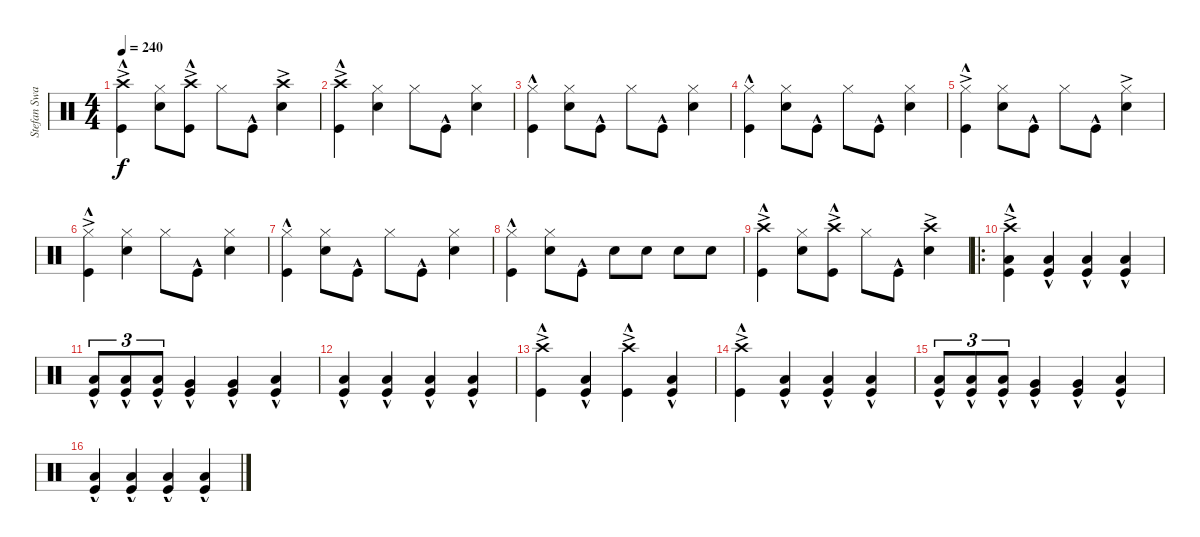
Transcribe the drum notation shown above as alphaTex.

\track ("Stefan Swarztmann" "Stefan Swa") {instrument percussion}
\staff {score}
\articulation defaults
\ts (4 4)
\tempo 240
\clef neutral
\ks c
("Crash high (hit)"{ac} "Kick (hit)"{hac}).4{dy f} ("Hi-Hat (closed)" "Snare (hit) 2").8 ("Crash high (hit)"{ac} "Kick (hit)"{hac}).8 "Hi-Hat (closed)".8 "Kick (hit)"{hac}.8 ("Crash high (hit)"{ac} "Snare (hit) 2").4 |
("Crash high (hit)"{ac} "Kick (hit)"{hac}).4 ("Hi-Hat (closed)" "Snare (hit) 2").4 "Hi-Hat (closed)".8 "Kick (hit)"{hac}.8 ("Hi-Hat (closed)" "Snare (hit) 2").4 |
("Hi-Hat (closed)" "Kick (hit)"{hac}).4 ("Hi-Hat (closed)" "Snare (hit) 2").8 "Kick (hit)"{hac}.8 "Hi-Hat (closed)".8 "Kick (hit)"{hac}.8 ("Hi-Hat (closed)" "Snare (hit) 2").4 |
("Hi-Hat (closed)" "Kick (hit)"{hac}).4 ("Hi-Hat (closed)" "Snare (hit) 2").8 "Kick (hit)"{hac}.8 "Hi-Hat (closed)".8 "Kick (hit)"{hac}.8 ("Hi-Hat (closed)" "Snare (hit) 2").4 |
("Hi-Hat (closed)"{ac} "Kick (hit)"{hac}).4 ("Hi-Hat (closed)" "Snare (hit) 2").8 "Kick (hit)"{hac}.8 "Hi-Hat (closed)".8 "Kick (hit)"{hac}.8 ("Hi-Hat (closed)"{ac} "Snare (hit) 2").4 |
("Hi-Hat (closed)"{ac} "Kick (hit)"{hac}).4 ("Hi-Hat (closed)" "Snare (hit) 2").4 "Hi-Hat (closed)".8 "Kick (hit)"{hac}.8 ("Hi-Hat (closed)" "Snare (hit) 2").4 |
("Hi-Hat (closed)" "Kick (hit)"{hac}).4 ("Hi-Hat (closed)" "Snare (hit) 2").8 "Kick (hit)"{hac}.8 "Hi-Hat (closed)".8 "Kick (hit)"{hac}.8 ("Hi-Hat (closed)" "Snare (hit) 2").4 |
("Hi-Hat (closed)" "Kick (hit)"{hac}).4 ("Hi-Hat (closed)" "Snare (hit) 2").8 "Kick (hit)"{hac}.8 "Snare (hit) 2".8 "Snare (hit) 2".8 "Snare (hit) 2".8 "Snare (hit) 2".8 |
("Crash high (hit)"{ac} "Kick (hit)"{hac}).4 ("Hi-Hat (closed)" "Snare (hit) 2").8 ("Crash high (hit)"{ac} "Kick (hit)"{hac}).8 "Hi-Hat (closed)".8 "Kick (hit)"{hac}.8 ("Crash high (hit)"{ac} "Snare (hit) 2").4 |
\ro
("Crash high (hit)"{ac} "Low Floor Tom (hit)"{hac} "Kick (hit)"{hac}).4 ("Low Floor Tom (hit)"{hac} "Kick (hit)"{hac}).4 ("Low Floor Tom (hit)"{hac} "Kick (hit)"{hac}).4 ("Low Floor Tom (hit)"{hac} "Kick (hit)"{hac}).4 |
("Low Tom (hit)"{hac} "Kick (hit)"{hac}).8{tu (3 2)} ("Low Tom (hit)"{hac} "Kick (hit)"{hac}).8{tu (3 2)} ("Low Tom (hit)"{hac} "Kick (hit)"{hac}).8{tu (3 2)} ("Very Low Tom (hit)"{hac} "Kick (hit)"{hac}).4 ("Very Low Tom (hit)"{hac} "Kick (hit)"{hac}).4 ("Low Floor Tom (hit)"{hac} "Kick (hit)"{hac}).4 |
("Low Floor Tom (hit)"{hac} "Kick (hit)"{hac}).4 ("Low Floor Tom (hit)"{hac} "Kick (hit)"{hac}).4 ("Low Floor Tom (hit)"{hac} "Kick (hit)"{hac}).4 ("Low Floor Tom (hit)"{hac} "Kick (hit)"{hac}).4 |
("Crash high (hit)"{ac} "Kick (hit)"{hac}).4 ("Low Floor Tom (hit)"{hac} "Kick (hit)"{hac}).4 ("Crash high (hit)"{ac} "Kick (hit)"{hac}).4 ("Low Floor Tom (hit)"{hac} "Kick (hit)"{hac}).4 |
("Crash high (hit)"{ac} "Kick (hit)"{hac}).4 ("Low Floor Tom (hit)"{hac} "Kick (hit)"{hac}).4 ("Low Floor Tom (hit)"{hac} "Kick (hit)"{hac}).4 ("Low Floor Tom (hit)"{hac} "Kick (hit)"{hac}).4 |
("Low Tom (hit)"{hac} "Kick (hit)"{hac}).8{tu (3 2)} ("Low Tom (hit)"{hac} "Kick (hit)"{hac}).8{tu (3 2)} ("Low Tom (hit)"{hac} "Kick (hit)"{hac}).8{tu (3 2)} ("Very Low Tom (hit)"{hac} "Kick (hit)"{hac}).4 ("Very Low Tom (hit)"{hac} "Kick (hit)"{hac}).4 ("Low Floor Tom (hit)"{hac} "Kick (hit)"{hac}).4 |
("Low Floor Tom (hit)"{hac} "Kick (hit)"{hac}).4 ("Low Floor Tom (hit)"{hac} "Kick (hit)"{hac}).4 ("Low Floor Tom (hit)"{hac} "Kick (hit)"{hac}).4 ("Low Floor Tom (hit)"{hac} "Kick (hit)"{hac}).4
